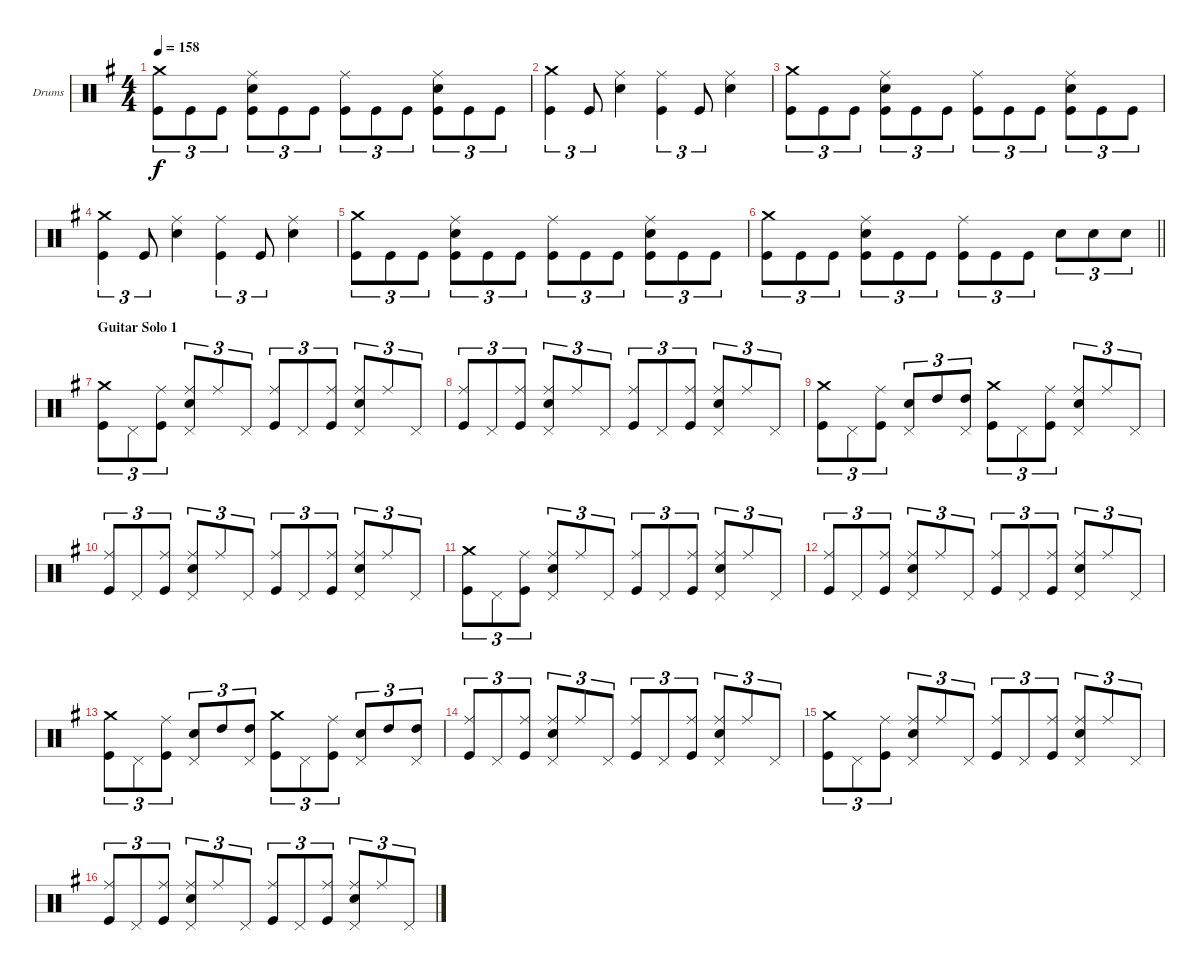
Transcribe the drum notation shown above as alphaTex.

\bracketExtendMode groupsimilarinstruments
\firstSystemTrackNameOrientation horizontal
\otherSystemsTrackNameOrientation horizontal
\track ("Барабаны" "Drums") {instrument percussion}
\staff {score}
\articulation defaults
\ts (4 4)
\tempo 158
\clef neutral
\ks eminor
("Kick (hit)" "Crash medium (hit)").8{tu (3 2) dy f} "Kick (hit)".8{tu (3 2)} "Kick (hit)".8{tu (3 2)} ("Kick (hit)" "Snare (hit) 2" "Ride (middle)").8{tu (3 2)} "Kick (hit)".8{tu (3 2)} "Kick (hit)".8{tu (3 2)} ("Kick (hit)" "Ride (middle)").8{tu (3 2)} "Kick (hit)".8{tu (3 2)} "Kick (hit)".8{tu (3 2)} ("Kick (hit)" "Snare (hit) 2" "Ride (middle)").8{tu (3 2)} "Kick (hit)".8{tu (3 2)} "Kick (hit)".8{tu (3 2)} |
("Kick (hit)" "Crash medium (hit)").4{tu (3 2)} "Kick (hit)".8{tu (3 2)} ("Snare (hit) 2" "Ride (middle)").4 ("Kick (hit)" "Ride (middle)").4{tu (3 2)} "Kick (hit)".8{tu (3 2)} ("Snare (hit) 2" "Ride (middle)").4 |
("Kick (hit)" "Crash medium (hit)").8{tu (3 2)} "Kick (hit)".8{tu (3 2)} "Kick (hit)".8{tu (3 2)} ("Kick (hit)" "Snare (hit) 2" "Ride (middle)").8{tu (3 2)} "Kick (hit)".8{tu (3 2)} "Kick (hit)".8{tu (3 2)} ("Kick (hit)" "Ride (middle)").8{tu (3 2)} "Kick (hit)".8{tu (3 2)} "Kick (hit)".8{tu (3 2)} ("Kick (hit)" "Snare (hit) 2" "Ride (middle)").8{tu (3 2)} "Kick (hit)".8{tu (3 2)} "Kick (hit)".8{tu (3 2)} |
("Kick (hit)" "Crash medium (hit)").4{tu (3 2)} "Kick (hit)".8{tu (3 2)} ("Snare (hit) 2" "Ride (middle)").4 ("Kick (hit)" "Ride (middle)").4{tu (3 2)} "Kick (hit)".8{tu (3 2)} ("Snare (hit) 2" "Ride (middle)").4 |
("Kick (hit)" "Crash medium (hit)").8{tu (3 2)} "Kick (hit)".8{tu (3 2)} "Kick (hit)".8{tu (3 2)} ("Kick (hit)" "Snare (hit) 2" "Ride (middle)").8{tu (3 2)} "Kick (hit)".8{tu (3 2)} "Kick (hit)".8{tu (3 2)} ("Kick (hit)" "Ride (middle)").8{tu (3 2)} "Kick (hit)".8{tu (3 2)} "Kick (hit)".8{tu (3 2)} ("Kick (hit)" "Snare (hit) 2" "Ride (middle)").8{tu (3 2)} "Kick (hit)".8{tu (3 2)} "Kick (hit)".8{tu (3 2)} |
\barLineRight lightlight
("Kick (hit)" "Crash medium (hit)").8{tu (3 2)} "Kick (hit)".8{tu (3 2)} "Kick (hit)".8{tu (3 2)} ("Kick (hit)" "Snare (hit) 2" "Ride (middle)").8{tu (3 2)} "Kick (hit)".8{tu (3 2)} "Kick (hit)".8{tu (3 2)} ("Kick (hit)" "Ride (middle)").8{tu (3 2)} "Kick (hit)".8{tu (3 2)} "Kick (hit)".8{tu (3 2)} "Snare (hit) 2".8{tu (3 2)} "Snare (hit) 2".8{tu (3 2)} "Snare (hit) 2".8{tu (3 2)} |
\section ("" "Guitar Solo 1")
("Kick (hit)" "Crash medium (hit)").8{tu (3 2)} "Pedal Hi-Hat (hit)".8{tu (3 2)} ("Kick (hit)" "Ride (middle)").8{tu (3 2)} ("Snare (hit) 2" "Ride (middle)" "Pedal Hi-Hat (hit)").8{tu (3 2)} "Ride (middle)".8{tu (3 2)} "Pedal Hi-Hat (hit)".8{tu (3 2)} ("Kick (hit)" "Ride (middle)").8{tu (3 2)} "Pedal Hi-Hat (hit)".8{tu (3 2)} ("Kick (hit)" "Ride (middle)").8{tu (3 2)} ("Snare (hit) 2" "Ride (middle)" "Pedal Hi-Hat (hit)").8{tu (3 2)} "Ride (middle)".8{tu (3 2)} "Pedal Hi-Hat (hit)".8{tu (3 2)} |
("Kick (hit)" "Ride (middle)").8{tu (3 2)} "Pedal Hi-Hat (hit)".8{tu (3 2)} ("Kick (hit)" "Ride (middle)").8{tu (3 2)} ("Snare (hit) 2" "Ride (middle)" "Pedal Hi-Hat (hit)").8{tu (3 2)} "Ride (middle)".8{tu (3 2)} "Pedal Hi-Hat (hit)".8{tu (3 2)} ("Kick (hit)" "Ride (middle)").8{tu (3 2)} "Pedal Hi-Hat (hit)".8{tu (3 2)} ("Kick (hit)" "Ride (middle)").8{tu (3 2)} ("Snare (hit) 2" "Ride (middle)" "Pedal Hi-Hat (hit)").8{tu (3 2)} "Ride (middle)".8{tu (3 2)} "Pedal Hi-Hat (hit)".8{tu (3 2)} |
("Kick (hit)" "Crash medium (hit)").8{tu (3 2)} "Pedal Hi-Hat (hit)".8{tu (3 2)} ("Kick (hit)" "Ride (middle)").8{tu (3 2)} ("Snare (hit) 2" "Pedal Hi-Hat (hit)").8{tu (3 2)} "High Tom (hit)".8{tu (3 2)} ("Pedal Hi-Hat (hit)" "High Tom (hit)").8{tu (3 2)} ("Kick (hit)" "Crash medium (hit)").8{tu (3 2)} "Pedal Hi-Hat (hit)".8{tu (3 2)} ("Kick (hit)" "Ride (middle)").8{tu (3 2)} ("Snare (hit) 2" "Ride (middle)" "Pedal Hi-Hat (hit)").8{tu (3 2)} "Ride (middle)".8{tu (3 2)} "Pedal Hi-Hat (hit)".8{tu (3 2)} |
("Kick (hit)" "Ride (middle)").8{tu (3 2)} "Pedal Hi-Hat (hit)".8{tu (3 2)} ("Kick (hit)" "Ride (middle)").8{tu (3 2)} ("Snare (hit) 2" "Ride (middle)" "Pedal Hi-Hat (hit)").8{tu (3 2)} "Ride (middle)".8{tu (3 2)} "Pedal Hi-Hat (hit)".8{tu (3 2)} ("Kick (hit)" "Ride (middle)").8{tu (3 2)} "Pedal Hi-Hat (hit)".8{tu (3 2)} ("Kick (hit)" "Ride (middle)").8{tu (3 2)} ("Snare (hit) 2" "Ride (middle)" "Pedal Hi-Hat (hit)").8{tu (3 2)} "Ride (middle)".8{tu (3 2)} "Pedal Hi-Hat (hit)".8{tu (3 2)} |
("Kick (hit)" "Crash medium (hit)").8{tu (3 2)} "Pedal Hi-Hat (hit)".8{tu (3 2)} ("Kick (hit)" "Ride (middle)").8{tu (3 2)} ("Snare (hit) 2" "Ride (middle)" "Pedal Hi-Hat (hit)").8{tu (3 2)} "Ride (middle)".8{tu (3 2)} "Pedal Hi-Hat (hit)".8{tu (3 2)} ("Kick (hit)" "Ride (middle)").8{tu (3 2)} "Pedal Hi-Hat (hit)".8{tu (3 2)} ("Kick (hit)" "Ride (middle)").8{tu (3 2)} ("Snare (hit) 2" "Ride (middle)" "Pedal Hi-Hat (hit)").8{tu (3 2)} "Ride (middle)".8{tu (3 2)} "Pedal Hi-Hat (hit)".8{tu (3 2)} |
("Kick (hit)" "Ride (middle)").8{tu (3 2)} "Pedal Hi-Hat (hit)".8{tu (3 2)} ("Kick (hit)" "Ride (middle)").8{tu (3 2)} ("Snare (hit) 2" "Ride (middle)" "Pedal Hi-Hat (hit)").8{tu (3 2)} "Ride (middle)".8{tu (3 2)} "Pedal Hi-Hat (hit)".8{tu (3 2)} ("Kick (hit)" "Ride (middle)").8{tu (3 2)} "Pedal Hi-Hat (hit)".8{tu (3 2)} ("Kick (hit)" "Ride (middle)").8{tu (3 2)} ("Snare (hit) 2" "Ride (middle)" "Pedal Hi-Hat (hit)").8{tu (3 2)} "Ride (middle)".8{tu (3 2)} "Pedal Hi-Hat (hit)".8{tu (3 2)} |
("Kick (hit)" "Crash medium (hit)").8{tu (3 2)} "Pedal Hi-Hat (hit)".8{tu (3 2)} ("Kick (hit)" "Ride (middle)").8{tu (3 2)} ("Snare (hit) 2" "Pedal Hi-Hat (hit)").8{tu (3 2)} "High Tom (hit)".8{tu (3 2)} ("Pedal Hi-Hat (hit)" "High Tom (hit)").8{tu (3 2)} ("Kick (hit)" "Crash medium (hit)").8{tu (3 2)} "Pedal Hi-Hat (hit)".8{tu (3 2)} ("Kick (hit)" "Ride (middle)").8{tu (3 2)} ("Snare (hit) 2" "Pedal Hi-Hat (hit)").8{tu (3 2)} "High Tom (hit)".8{tu (3 2)} ("Pedal Hi-Hat (hit)" "High Tom (hit)").8{tu (3 2)} |
("Kick (hit)" "Ride (middle)").8{tu (3 2)} "Pedal Hi-Hat (hit)".8{tu (3 2)} ("Kick (hit)" "Ride (middle)").8{tu (3 2)} ("Snare (hit) 2" "Ride (middle)" "Pedal Hi-Hat (hit)").8{tu (3 2)} "Ride (middle)".8{tu (3 2)} "Pedal Hi-Hat (hit)".8{tu (3 2)} ("Kick (hit)" "Ride (middle)").8{tu (3 2)} "Pedal Hi-Hat (hit)".8{tu (3 2)} ("Kick (hit)" "Ride (middle)").8{tu (3 2)} ("Snare (hit) 2" "Ride (middle)" "Pedal Hi-Hat (hit)").8{tu (3 2)} "Ride (middle)".8{tu (3 2)} "Pedal Hi-Hat (hit)".8{tu (3 2)} |
("Kick (hit)" "Crash medium (hit)").8{tu (3 2)} "Pedal Hi-Hat (hit)".8{tu (3 2)} ("Kick (hit)" "Ride (middle)").8{tu (3 2)} ("Snare (hit) 2" "Ride (middle)" "Pedal Hi-Hat (hit)").8{tu (3 2)} "Ride (middle)".8{tu (3 2)} "Pedal Hi-Hat (hit)".8{tu (3 2)} ("Kick (hit)" "Ride (middle)").8{tu (3 2)} "Pedal Hi-Hat (hit)".8{tu (3 2)} ("Kick (hit)" "Ride (middle)").8{tu (3 2)} ("Snare (hit) 2" "Ride (middle)" "Pedal Hi-Hat (hit)").8{tu (3 2)} "Ride (middle)".8{tu (3 2)} "Pedal Hi-Hat (hit)".8{tu (3 2)} |
("Kick (hit)" "Ride (middle)").8{tu (3 2)} "Pedal Hi-Hat (hit)".8{tu (3 2)} ("Kick (hit)" "Ride (middle)").8{tu (3 2)} ("Snare (hit) 2" "Ride (middle)" "Pedal Hi-Hat (hit)").8{tu (3 2)} "Ride (middle)".8{tu (3 2)} "Pedal Hi-Hat (hit)".8{tu (3 2)} ("Kick (hit)" "Ride (middle)").8{tu (3 2)} "Pedal Hi-Hat (hit)".8{tu (3 2)} ("Kick (hit)" "Ride (middle)").8{tu (3 2)} ("Snare (hit) 2" "Ride (middle)" "Pedal Hi-Hat (hit)").8{tu (3 2)} "Ride (middle)".8{tu (3 2)} "Pedal Hi-Hat (hit)".8{tu (3 2)}
